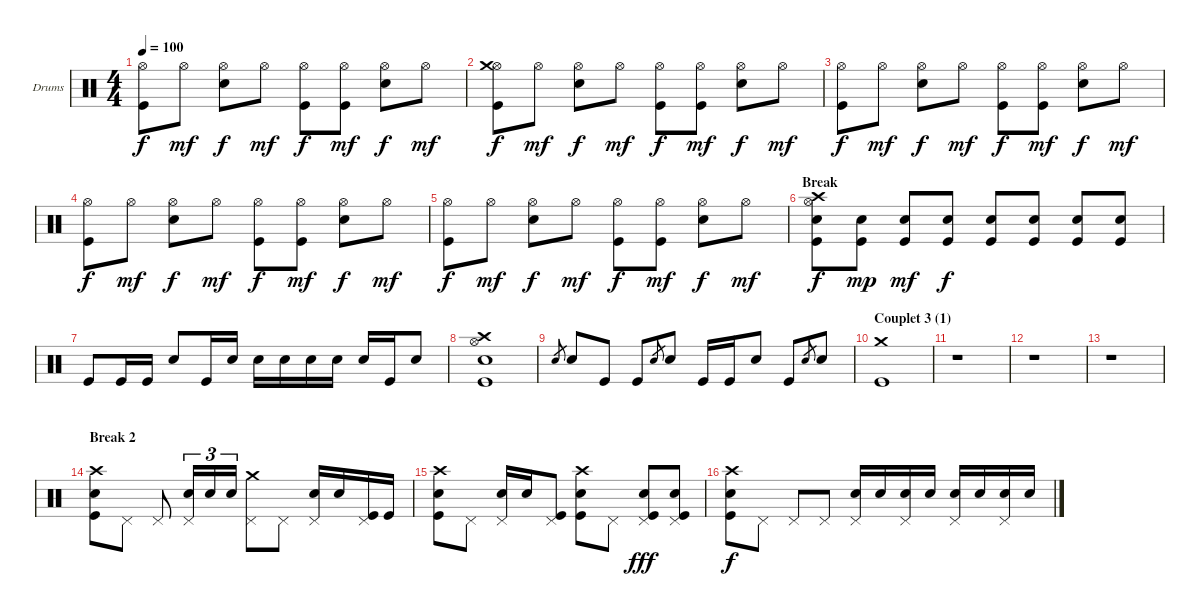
\bracketExtendMode groupsimilarinstruments
\firstSystemTrackNameOrientation horizontal
\otherSystemsTrackNameOrientation horizontal
\track ("Drumkit" "Drums") {instrument percussion}
\staff {score}
\articulation defaults
\ts (4 4)
\tempo 100
\clef neutral
\ks c
("Hi-Hat (open)" "Kick (hit)").8{dy f} "Hi-Hat (open)".8{dy mf} ("Hi-Hat (open)" "Snare (hit) 2").8{dy f} "Hi-Hat (open)".8{dy mf} ("Hi-Hat (open)" "Kick (hit)").8{dy f} ("Hi-Hat (open)" "Kick (hit)").8{dy mf} ("Hi-Hat (open)" "Snare (hit) 2").8{dy f} "Hi-Hat (open)".8{dy mf} |
("Hi-Hat (open)" "Crash medium (hit)" "Kick (hit)").8{dy f} "Hi-Hat (open)".8{dy mf} ("Hi-Hat (open)" "Snare (hit) 2").8{dy f} "Hi-Hat (open)".8{dy mf} ("Hi-Hat (open)" "Kick (hit)").8{dy f} ("Hi-Hat (open)" "Kick (hit)").8{dy mf} ("Hi-Hat (open)" "Snare (hit) 2").8{dy f} "Hi-Hat (open)".8{dy mf} |
("Hi-Hat (open)" "Kick (hit)").8{dy f} "Hi-Hat (open)".8{dy mf} ("Hi-Hat (open)" "Snare (hit) 2").8{dy f} "Hi-Hat (open)".8{dy mf} ("Hi-Hat (open)" "Kick (hit)").8{dy f} ("Hi-Hat (open)" "Kick (hit)").8{dy mf} ("Hi-Hat (open)" "Snare (hit) 2").8{dy f} "Hi-Hat (open)".8{dy mf} |
("Hi-Hat (open)" "Kick (hit)").8{dy f} "Hi-Hat (open)".8{dy mf} ("Hi-Hat (open)" "Snare (hit) 2").8{dy f} "Hi-Hat (open)".8{dy mf} ("Hi-Hat (open)" "Kick (hit)").8{dy f} ("Hi-Hat (open)" "Kick (hit)").8{dy mf} ("Hi-Hat (open)" "Snare (hit) 2").8{dy f} "Hi-Hat (open)".8{dy mf} |
("Hi-Hat (open)" "Kick (hit)").8{dy f} "Hi-Hat (open)".8{dy mf} ("Hi-Hat (open)" "Snare (hit) 2").8{dy f} "Hi-Hat (open)".8{dy mf} ("Hi-Hat (open)" "Kick (hit)").8{dy f} ("Hi-Hat (open)" "Kick (hit)").8{dy mf} ("Hi-Hat (open)" "Snare (hit) 2").8{dy f} "Hi-Hat (open)".8{dy mf} |
\section ("" "Break")
("Hi-Hat (open)" "Crash high (hit)" "Snare (hit) 2" "Kick (hit)").8{dy f} ("Snare (hit) 2" "Kick (hit)").8{dy mp} ("Snare (hit) 2" "Kick (hit)").8{dy mf} ("Snare (hit) 2" "Kick (hit)").8{dy f} ("Snare (hit) 2" "Kick (hit)").8 ("Snare (hit) 2" "Kick (hit)").8 ("Snare (hit) 2" "Kick (hit)").8 ("Snare (hit) 2" "Kick (hit)").8 |
"Kick (hit)".8 "Kick (hit)".16 "Kick (hit)".16 "Snare (hit) 2".8 "Kick (hit)".16 "Snare (hit) 2".16 "Snare (hit) 2".16 "Snare (hit) 2".16 "Snare (hit) 2".16 "Snare (hit) 2".16 "Snare (hit) 2".16 "Kick (hit)".16 "Snare (hit) 2".8 |
("Hi-Hat (open)" "Crash high (hit)" "Snare (hit) 2" "Kick (hit)").1 |
"Snare (hit) 2".8{gr} "Snare (hit) 2".8 "Kick (hit)".8 "Kick (hit)".8 "Snare (hit) 2".8{gr} "Snare (hit) 2".8 "Kick (hit)".16 "Kick (hit)".16 "Snare (hit) 2".8 "Kick (hit)".8 "Snare (hit) 2".8{gr} "Snare (hit) 2".8 |
\section ("" "Couplet 3 (1)")
("Crash medium (hit)" "Kick (hit)").1 |
r.1 |
r.1 |
r.1 |
\section ("" "Break 2")
("Crash high (hit)" "Snare (hit) 2" "Kick (hit)").8 "Pedal Hi-Hat (hit)".8 "Pedal Hi-Hat (hit)".8 ("Pedal Hi-Hat (hit)" "Snare (hit) 2").16{tu (3 2)} "Snare (hit) 2".16{tu (3 2)} "Snare (hit) 2".16{tu (3 2)} ("Pedal Hi-Hat (hit)" "Crash medium (hit)").8 "Pedal Hi-Hat (hit)".8 ("Pedal Hi-Hat (hit)" "Snare (hit) 2").16 "Snare (hit) 2".16 ("Pedal Hi-Hat (hit)" "Kick (hit)").16 "Kick (hit)".16 |
("Crash high (hit)" "Snare (hit) 2" "Kick (hit)").8 "Pedal Hi-Hat (hit)".8 ("Pedal Hi-Hat (hit)" "Snare (hit) 2").16 "Snare (hit) 2".16 ("Pedal Hi-Hat (hit)" "Kick (hit)").8 ("Crash high (hit)" "Snare (hit) 2" "Kick (hit)").8 "Pedal Hi-Hat (hit)".8 ("Pedal Hi-Hat (hit)" "Snare (hit) 2" "Kick (hit)").8{dy fff} ("Pedal Hi-Hat (hit)" "Snare (hit) 2" "Kick (hit)").8 |
("Crash high (hit)" "Snare (hit) 2" "Kick (hit)").8{dy f} "Pedal Hi-Hat (hit)".8 "Pedal Hi-Hat (hit)".8 "Pedal Hi-Hat (hit)".8 ("Pedal Hi-Hat (hit)" "Snare (hit) 2").16 "Snare (hit) 2".16 ("Pedal Hi-Hat (hit)" "Snare (hit) 2").16 "Snare (hit) 2".16 ("Pedal Hi-Hat (hit)" "Snare (hit) 2").16 "Snare (hit) 2".16 ("Pedal Hi-Hat (hit)" "Snare (hit) 2").16 "Snare (hit) 2".16
